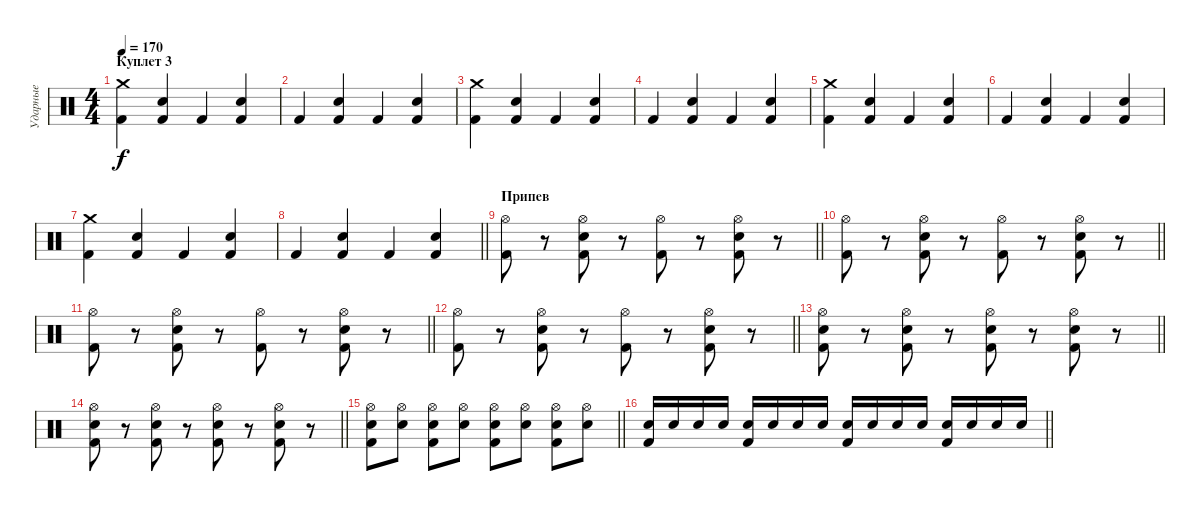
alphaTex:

\track ("Ударные" "Ударные") {instrument percussion}
\staff {score}
\articulation defaults
\ts (4 4)
\section ("" "Куплет 3")
\tempo 170
\clef neutral
\ks c
("Kick (hit) 2" "Crash medium (hit)").4{dy f} ("Kick (hit) 2" "Electric Snare (hit)").4 "Kick (hit) 2".4 ("Kick (hit) 2" "Electric Snare (hit)").4 |
"Kick (hit) 2".4 ("Kick (hit) 2" "Electric Snare (hit)").4 "Kick (hit) 2".4 ("Kick (hit) 2" "Electric Snare (hit)").4 |
("Kick (hit) 2" "Crash medium (hit)").4 ("Kick (hit) 2" "Electric Snare (hit)").4 "Kick (hit) 2".4 ("Kick (hit) 2" "Electric Snare (hit)").4 |
"Kick (hit) 2".4 ("Kick (hit) 2" "Electric Snare (hit)").4 "Kick (hit) 2".4 ("Kick (hit) 2" "Electric Snare (hit)").4 |
("Kick (hit) 2" "Crash medium (hit)").4 ("Kick (hit) 2" "Electric Snare (hit)").4 "Kick (hit) 2".4 ("Kick (hit) 2" "Electric Snare (hit)").4 |
"Kick (hit) 2".4 ("Kick (hit) 2" "Electric Snare (hit)").4 "Kick (hit) 2".4 ("Kick (hit) 2" "Electric Snare (hit)").4 |
("Kick (hit) 2" "Crash medium (hit)").4 ("Kick (hit) 2" "Electric Snare (hit)").4 "Kick (hit) 2".4 ("Kick (hit) 2" "Electric Snare (hit)").4 |
\barLineRight lightlight "Kick (hit) 2".4
("Kick (hit) 2" "Electric Snare (hit)").4 "Kick (hit) 2".4 ("Kick (hit) 2" "Electric Snare (hit)").4 |
\section ("" "Припев")
\barLineRight lightlight
("Kick (hit) 2" "Hi-Hat (open)").8 r.8 ("Kick (hit) 2" "Hi-Hat (open)" "Electric Snare (hit)").8 r.8 ("Kick (hit) 2" "Hi-Hat (open)").8 r.8 ("Kick (hit) 2" "Hi-Hat (open)" "Electric Snare (hit)").8 r.8 |
\barLineRight lightlight
("Kick (hit) 2" "Hi-Hat (open)").8 r.8 ("Kick (hit) 2" "Hi-Hat (open)" "Electric Snare (hit)").8 r.8 ("Kick (hit) 2" "Hi-Hat (open)").8 r.8 ("Kick (hit) 2" "Hi-Hat (open)" "Electric Snare (hit)").8 r.8 |
\barLineRight lightlight
("Kick (hit) 2" "Hi-Hat (open)").8 r.8 ("Kick (hit) 2" "Hi-Hat (open)" "Electric Snare (hit)").8 r.8 ("Kick (hit) 2" "Hi-Hat (open)").8 r.8 ("Kick (hit) 2" "Hi-Hat (open)" "Electric Snare (hit)").8 r.8 |
\barLineRight lightlight
("Kick (hit) 2" "Hi-Hat (open)").8 r.8 ("Kick (hit) 2" "Hi-Hat (open)" "Electric Snare (hit)").8 r.8 ("Kick (hit) 2" "Hi-Hat (open)").8 r.8 ("Kick (hit) 2" "Hi-Hat (open)" "Electric Snare (hit)").8 r.8 |
\barLineRight lightlight
("Kick (hit) 2" "Hi-Hat (open)" "Electric Snare (hit)").8 r.8 ("Kick (hit) 2" "Hi-Hat (open)" "Electric Snare (hit)").8 r.8 ("Kick (hit) 2" "Hi-Hat (open)" "Electric Snare (hit)").8 r.8 ("Kick (hit) 2" "Hi-Hat (open)" "Electric Snare (hit)").8 r.8 |
\barLineRight lightlight
("Kick (hit) 2" "Hi-Hat (open)" "Electric Snare (hit)").8 r.8 ("Kick (hit) 2" "Hi-Hat (open)" "Electric Snare (hit)").8 r.8 ("Kick (hit) 2" "Hi-Hat (open)" "Electric Snare (hit)").8 r.8 ("Kick (hit) 2" "Hi-Hat (open)" "Electric Snare (hit)").8 r.8 |
\barLineRight lightlight
("Kick (hit) 2" "Hi-Hat (open)" "Electric Snare (hit)").8 ("Hi-Hat (open)" "Electric Snare (hit)").8 ("Kick (hit) 2" "Hi-Hat (open)" "Electric Snare (hit)").8 ("Hi-Hat (open)" "Electric Snare (hit)").8 ("Kick (hit) 2" "Hi-Hat (open)" "Electric Snare (hit)").8 ("Hi-Hat (open)" "Electric Snare (hit)").8 ("Kick (hit) 2" "Hi-Hat (open)" "Electric Snare (hit)").8 ("Hi-Hat (open)" "Electric Snare (hit)").8 |
\barLineRight lightlight
("Kick (hit) 2" "Electric Snare (hit)").16 "Electric Snare (hit)".16 "Electric Snare (hit)".16 "Electric Snare (hit)".16 ("Kick (hit) 2" "Electric Snare (hit)").16 "Electric Snare (hit)".16 "Electric Snare (hit)".16 "Electric Snare (hit)".16 ("Kick (hit) 2" "Electric Snare (hit)").16 "Electric Snare (hit)".16 "Electric Snare (hit)".16 "Electric Snare (hit)".16 ("Kick (hit) 2" "Electric Snare (hit)").16 "Electric Snare (hit)".16 "Electric Snare (hit)".16 "Electric Snare (hit)".16
